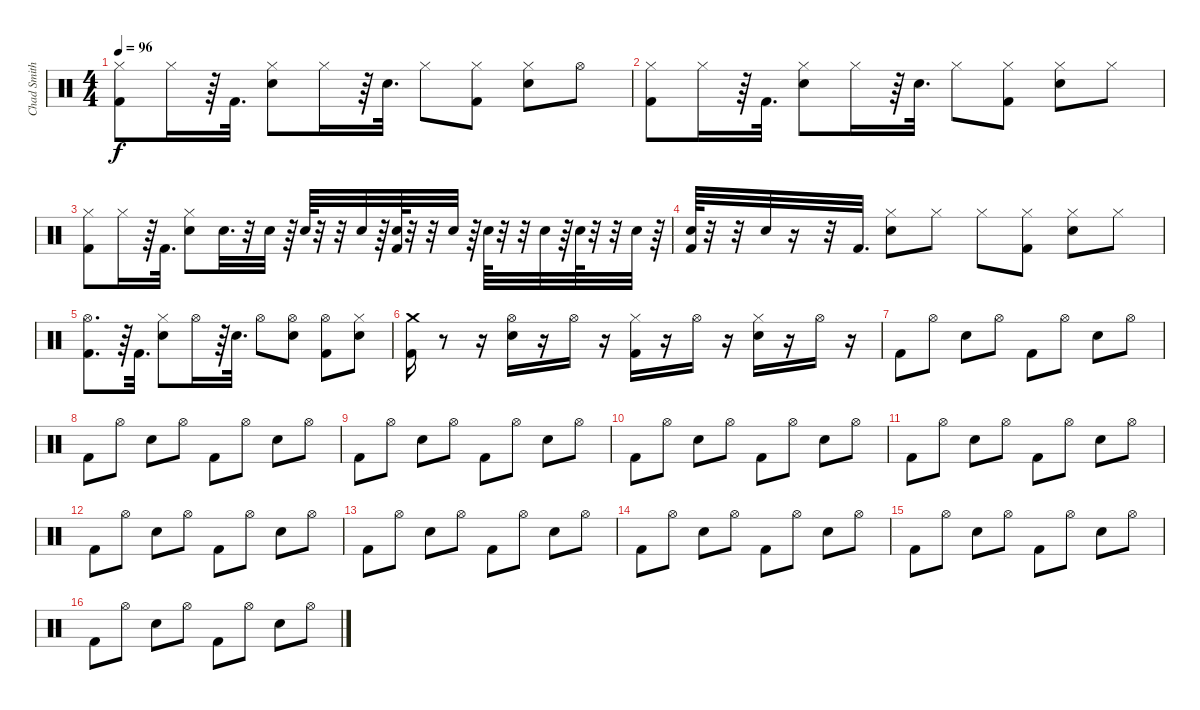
\track ("Chad Smith" "Chad Smith") {instrument percussion}
\staff {score}
\articulation defaults
\ts (4 4)
\tempo 96
\clef neutral
\ks c
("Hi-Hat (closed)" "Kick (hit) 2").8{dy f} "Hi-Hat (closed)".16 r.64 "Kick (hit) 2".32{d} ("Hi-Hat (closed)" "Electric Snare (hit)").8 "Hi-Hat (closed)".16 r.64 "Electric Snare (hit)".32{d} "Hi-Hat (closed)".8 ("Hi-Hat (closed)" "Kick (hit) 2").8 ("Hi-Hat (closed)" "Electric Snare (hit)").8 "Hi-Hat (open)".8 |
("Hi-Hat (closed)" "Kick (hit) 2").8 "Hi-Hat (closed)".16 r.64 "Kick (hit) 2".32{d} ("Hi-Hat (closed)" "Electric Snare (hit)").8 "Hi-Hat (closed)".16 r.64 "Electric Snare (hit)".32{d} "Hi-Hat (closed)".8 ("Hi-Hat (closed)" "Kick (hit) 2").8 ("Hi-Hat (closed)" "Electric Snare (hit)").8 "Hi-Hat (closed)".8 |
("Hi-Hat (closed)" "Kick (hit) 2").8 "Hi-Hat (closed)".16 r.64 "Kick (hit) 2".32{d} ("Hi-Hat (closed)" "Electric Snare (hit)").8 "Electric Snare (hit)".32{d} r.32 "Electric Snare (hit)".32 r.64 "Electric Snare (hit)".64 r.32 r.32 "Electric Snare (hit)".32 r.64 ("Electric Snare (hit)" "Kick (hit) 2").64 r.32 r.32 "Electric Snare (hit)".32 r.64 "Electric Snare (hit)".64 r.32 r.32 "Electric Snare (hit)".32 r.64 "Electric Snare (hit)".64 r.32 r.32 "Electric Snare (hit)".32 r.64 |
("Electric Snare (hit)" "Kick (hit) 2").64 r.32 r.32 "Electric Snare (hit)".32 r.16 r.32 "Kick (hit) 2".32{d} ("Hi-Hat (closed)" "Electric Snare (hit)").8 "Hi-Hat (closed)".8 "Hi-Hat (closed)".8 ("Hi-Hat (closed)" "Kick (hit) 2").8 ("Hi-Hat (closed)" "Electric Snare (hit)").8 "Hi-Hat (closed)".8 |
("Hi-Hat (open)" "Kick (hit) 2").8{d} r.64 "Kick (hit) 2".32{d} ("Hi-Hat (closed)" "Electric Snare (hit)").8 "Hi-Hat (open)".16 r.64 "Electric Snare (hit)".32{d} "Hi-Hat (open)".8 ("Hi-Hat (open)" "Electric Snare (hit)").8 ("Hi-Hat (open)" "Kick (hit) 2").8 ("Hi-Hat (closed)" "Electric Snare (hit)").8 |
("Crash medium (hit)" "Kick (hit) 2").16 r.8 r.16 ("Hi-Hat (open)" "Electric Snare (hit)").16 r.16 "Hi-Hat (open)".16 r.16 ("Kick (hit) 2" "Hi-Hat (closed)").16 r.16 "Hi-Hat (open)".16 r.16 ("Electric Snare (hit)" "Hi-Hat (closed)").16 r.16 "Hi-Hat (open)".16 r.16 |
"Kick (hit) 2".8 "Hi-Hat (open)".8 "Electric Snare (hit)".8 "Hi-Hat (open)".8 "Kick (hit) 2".8 "Hi-Hat (open)".8 "Electric Snare (hit)".8 "Hi-Hat (open)".8 |
"Kick (hit) 2".8 "Hi-Hat (open)".8 "Electric Snare (hit)".8 "Hi-Hat (open)".8 "Kick (hit) 2".8 "Hi-Hat (open)".8 "Electric Snare (hit)".8 "Hi-Hat (open)".8 |
"Kick (hit) 2".8 "Hi-Hat (open)".8 "Electric Snare (hit)".8 "Hi-Hat (open)".8 "Kick (hit) 2".8 "Hi-Hat (open)".8 "Electric Snare (hit)".8 "Hi-Hat (open)".8 |
"Kick (hit) 2".8 "Hi-Hat (open)".8 "Electric Snare (hit)".8 "Hi-Hat (open)".8 "Kick (hit) 2".8 "Hi-Hat (open)".8 "Electric Snare (hit)".8 "Hi-Hat (open)".8 |
"Kick (hit) 2".8 "Hi-Hat (open)".8 "Electric Snare (hit)".8 "Hi-Hat (open)".8 "Kick (hit) 2".8 "Hi-Hat (open)".8 "Electric Snare (hit)".8 "Hi-Hat (open)".8 |
"Kick (hit) 2".8 "Hi-Hat (open)".8 "Electric Snare (hit)".8 "Hi-Hat (open)".8 "Kick (hit) 2".8 "Hi-Hat (open)".8 "Electric Snare (hit)".8 "Hi-Hat (open)".8 |
"Kick (hit) 2".8 "Hi-Hat (open)".8 "Electric Snare (hit)".8 "Hi-Hat (open)".8 "Kick (hit) 2".8 "Hi-Hat (open)".8 "Electric Snare (hit)".8 "Hi-Hat (open)".8 |
"Kick (hit) 2".8 "Hi-Hat (open)".8 "Electric Snare (hit)".8 "Hi-Hat (open)".8 "Kick (hit) 2".8 "Hi-Hat (open)".8 "Electric Snare (hit)".8 "Hi-Hat (open)".8 |
"Kick (hit) 2".8 "Hi-Hat (open)".8 "Electric Snare (hit)".8 "Hi-Hat (open)".8 "Kick (hit) 2".8 "Hi-Hat (open)".8 "Electric Snare (hit)".8 "Hi-Hat (open)".8 |
"Kick (hit) 2".8 "Hi-Hat (open)".8 "Electric Snare (hit)".8 "Hi-Hat (open)".8 "Kick (hit) 2".8 "Hi-Hat (open)".8 "Electric Snare (hit)".8 "Hi-Hat (open)".8
